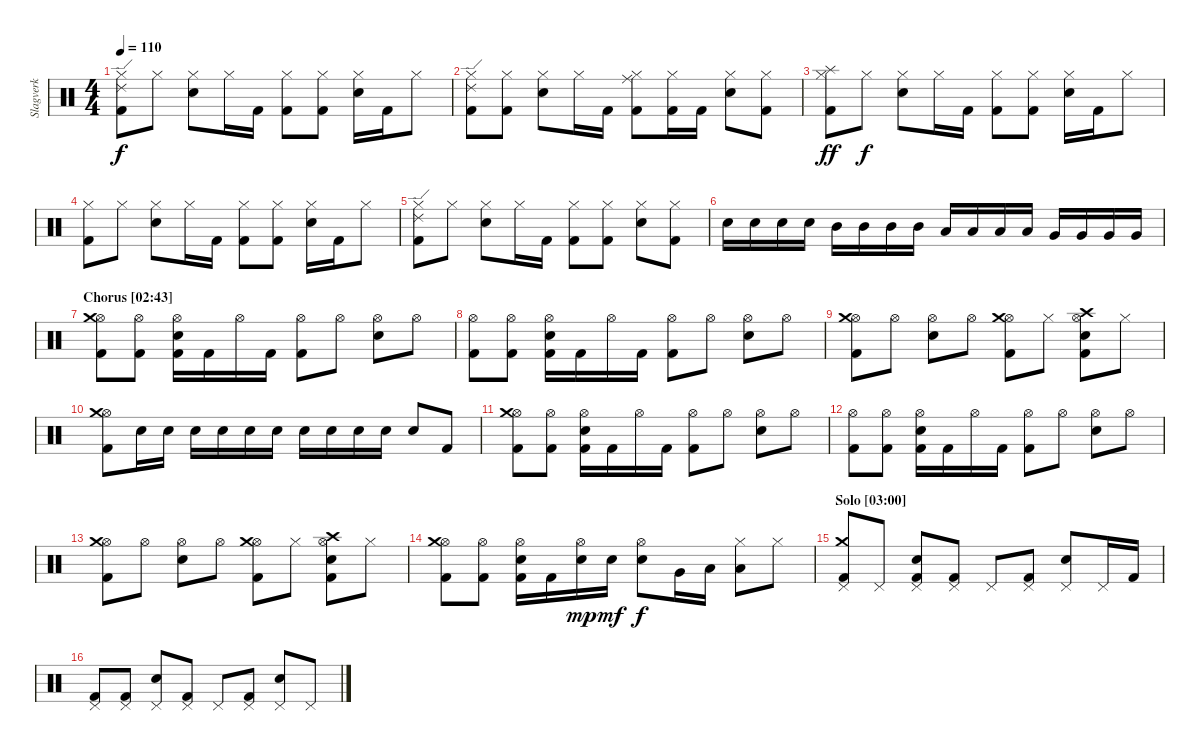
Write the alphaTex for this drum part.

\track ("Slagverk" "Slagverk") {instrument percussion}
\staff {score}
\articulation defaults
\ts (4 4)
\tempo 110
\clef neutral
\ks c
("Hi-Hat (closed)" "Ride (edge) 2" "Kick (hit) 2").8{dy f} "Hi-Hat (closed)".8 ("Hi-Hat (closed)" "Electric Snare (hit)").8 "Hi-Hat (closed)".16 "Kick (hit) 2".16 ("Hi-Hat (closed)" "Kick (hit) 2").8 ("Hi-Hat (closed)" "Kick (hit) 2").8 ("Hi-Hat (closed)" "Electric Snare (hit)").16 "Kick (hit) 2".16 "Hi-Hat (closed)".8 |
("Hi-Hat (closed)" "Ride (edge) 2" "Kick (hit) 2").8 ("Hi-Hat (closed)" "Kick (hit) 2").8 ("Hi-Hat (closed)" "Electric Snare (hit)").8 "Hi-Hat (closed)".16 "Kick (hit) 2".16 ("Hi-Hat (closed)" "Ride (middle)" "Kick (hit) 2").8 ("Hi-Hat (closed)" "Kick (hit) 2").16 "Kick (hit) 2".16 ("Hi-Hat (closed)" "Electric Snare (hit)").8 ("Hi-Hat (closed)" "Kick (hit) 2").8 |
("Hi-Hat (closed)" "Splash (hit)" "Kick (hit) 2").8{dy ff} "Hi-Hat (closed)".8{dy f} ("Hi-Hat (closed)" "Electric Snare (hit)").8 "Hi-Hat (closed)".16 "Kick (hit) 2".16 ("Hi-Hat (closed)" "Kick (hit) 2").8 ("Hi-Hat (closed)" "Kick (hit) 2").8 ("Hi-Hat (closed)" "Electric Snare (hit)").16 "Kick (hit) 2".16 "Hi-Hat (closed)".8 |
("Hi-Hat (closed)" "Kick (hit) 2").8 "Hi-Hat (closed)".8 ("Hi-Hat (closed)" "Electric Snare (hit)").8 "Hi-Hat (closed)".16 "Kick (hit) 2".16 ("Hi-Hat (closed)" "Kick (hit) 2").8 ("Hi-Hat (closed)" "Kick (hit) 2").8 ("Hi-Hat (closed)" "Electric Snare (hit)").16 "Kick (hit) 2".16 "Hi-Hat (closed)".8 |
("Hi-Hat (closed)" "Ride (edge) 2" "Kick (hit) 2").8 "Hi-Hat (closed)".8 ("Hi-Hat (closed)" "Electric Snare (hit)").8 "Hi-Hat (closed)".16 "Kick (hit) 2".16 ("Hi-Hat (closed)" "Kick (hit) 2").8 ("Hi-Hat (closed)" "Kick (hit) 2").8 ("Hi-Hat (closed)" "Electric Snare (hit)").8 ("Hi-Hat (closed)" "Kick (hit) 2").8 |
"Electric Snare (hit)".16 "Electric Snare (hit)".16 "Electric Snare (hit)".16 "Electric Snare (hit)".16 "Mid Tom (hit)".16 "Mid Tom (hit)".16 "Mid Tom (hit)".16 "Mid Tom (hit)".16 "Low Tom (hit)".16 "Low Tom (hit)".16 "Low Tom (hit)".16 "Low Tom (hit)".16 "Very Low Tom (hit)".16 "Very Low Tom (hit)".16 "Very Low Tom (hit)".16 "Very Low Tom (hit)".16 |
\section ("" "Chorus [02:43]")
("Hi-Hat (open)" "Crash medium (hit)" "Kick (hit) 2").8 ("Hi-Hat (open)" "Kick (hit) 2").8 ("Hi-Hat (open)" "Electric Snare (hit)" "Kick (hit) 2").16 "Kick (hit) 2".16 "Hi-Hat (open)".16 "Kick (hit) 2".16 ("Hi-Hat (open)" "Kick (hit) 2").8 "Hi-Hat (open)".8 ("Hi-Hat (open)" "Electric Snare (hit)").8 "Hi-Hat (open)".8 |
("Hi-Hat (open)" "Kick (hit) 2").8 ("Hi-Hat (open)" "Kick (hit) 2").8 ("Hi-Hat (open)" "Electric Snare (hit)" "Kick (hit) 2").16 "Kick (hit) 2".16 "Hi-Hat (open)".16 "Kick (hit) 2".16 ("Hi-Hat (open)" "Kick (hit) 2").8 "Hi-Hat (open)".8 ("Hi-Hat (open)" "Electric Snare (hit)").8 "Hi-Hat (open)".8 |
("Hi-Hat (open)" "Crash medium (hit)" "Kick (hit) 2").8 "Hi-Hat (open)".8 ("Hi-Hat (open)" "Electric Snare (hit)").8 "Hi-Hat (open)".8 ("Hi-Hat (open)" "Crash medium (hit)" "Kick (hit) 2").8 "Hi-Hat (closed)".8 ("Hi-Hat (open)" "Crash high (hit)" "Electric Snare (hit)" "Kick (hit) 2").8 "Hi-Hat (closed)".8 |
("Hi-Hat (open)" "Crash medium (hit)" "Kick (hit) 2").8 "Electric Snare (hit)".16 "Electric Snare (hit)".16 "Electric Snare (hit)".16 "Electric Snare (hit)".16 "Electric Snare (hit)".16 "Electric Snare (hit)".16 "Electric Snare (hit)".16 "Electric Snare (hit)".16 "Electric Snare (hit)".16 "Electric Snare (hit)".16 "Electric Snare (hit)".8 "Kick (hit) 2".8 |
("Hi-Hat (open)" "Crash medium (hit)" "Kick (hit) 2").8 ("Hi-Hat (open)" "Kick (hit) 2").8 ("Hi-Hat (open)" "Electric Snare (hit)" "Kick (hit) 2").16 "Kick (hit) 2".16 "Hi-Hat (open)".16 "Kick (hit) 2".16 ("Hi-Hat (open)" "Kick (hit) 2").8 "Hi-Hat (open)".8 ("Hi-Hat (open)" "Electric Snare (hit)").8 "Hi-Hat (open)".8 |
("Hi-Hat (open)" "Kick (hit) 2").8 ("Hi-Hat (open)" "Kick (hit) 2").8 ("Hi-Hat (open)" "Electric Snare (hit)" "Kick (hit) 2").16 "Kick (hit) 2".16 "Hi-Hat (open)".16 "Kick (hit) 2".16 ("Hi-Hat (open)" "Kick (hit) 2").8 "Hi-Hat (open)".8 ("Hi-Hat (open)" "Electric Snare (hit)").8 "Hi-Hat (open)".8 |
("Hi-Hat (open)" "Crash medium (hit)" "Kick (hit) 2").8 "Hi-Hat (open)".8 ("Hi-Hat (open)" "Electric Snare (hit)").8 "Hi-Hat (open)".8 ("Hi-Hat (open)" "Crash medium (hit)" "Kick (hit) 2").8 "Hi-Hat (closed)".8 ("Hi-Hat (open)" "Crash high (hit)" "Electric Snare (hit)" "Kick (hit) 2").8 "Hi-Hat (closed)".8 |
("Hi-Hat (open)" "Crash medium (hit)" "Kick (hit) 2").8 ("Hi-Hat (open)" "Kick (hit) 2").8 ("Hi-Hat (open)" "Electric Snare (hit)" "Kick (hit) 2").16 "Kick (hit) 2".16 ("Hi-Hat (open)" "Electric Snare (hit)").16{dy mp} "Electric Snare (hit)".16{dy mf} ("Hi-Hat (open)" "Electric Snare (hit)").8{dy f} "Very Low Tom (hit)".16 "Low Floor Tom (hit)".16 ("Hi-Hat (closed)" "Low Tom (hit)").8 "Hi-Hat (closed)".8 |
\section ("" "Solo [03:00]")
("Pedal Hi-Hat (hit)" "Crash medium (hit)" "Kick (hit) 2").8 "Pedal Hi-Hat (hit)".8 ("Pedal Hi-Hat (hit)" "Electric Snare (hit)" "Kick (hit) 2").8 ("Pedal Hi-Hat (hit)" "Kick (hit) 2").8 "Pedal Hi-Hat (hit)".8 ("Pedal Hi-Hat (hit)" "Kick (hit) 2").8 ("Pedal Hi-Hat (hit)" "Electric Snare (hit)").8 "Pedal Hi-Hat (hit)".16 "Kick (hit) 2".16 |
("Pedal Hi-Hat (hit)" "Kick (hit) 2").8 ("Pedal Hi-Hat (hit)" "Kick (hit) 2").8 ("Pedal Hi-Hat (hit)" "Electric Snare (hit)").8 ("Pedal Hi-Hat (hit)" "Kick (hit) 2").8 "Pedal Hi-Hat (hit)".8 ("Pedal Hi-Hat (hit)" "Kick (hit) 2").8 ("Pedal Hi-Hat (hit)" "Electric Snare (hit)").8 "Pedal Hi-Hat (hit)".8
